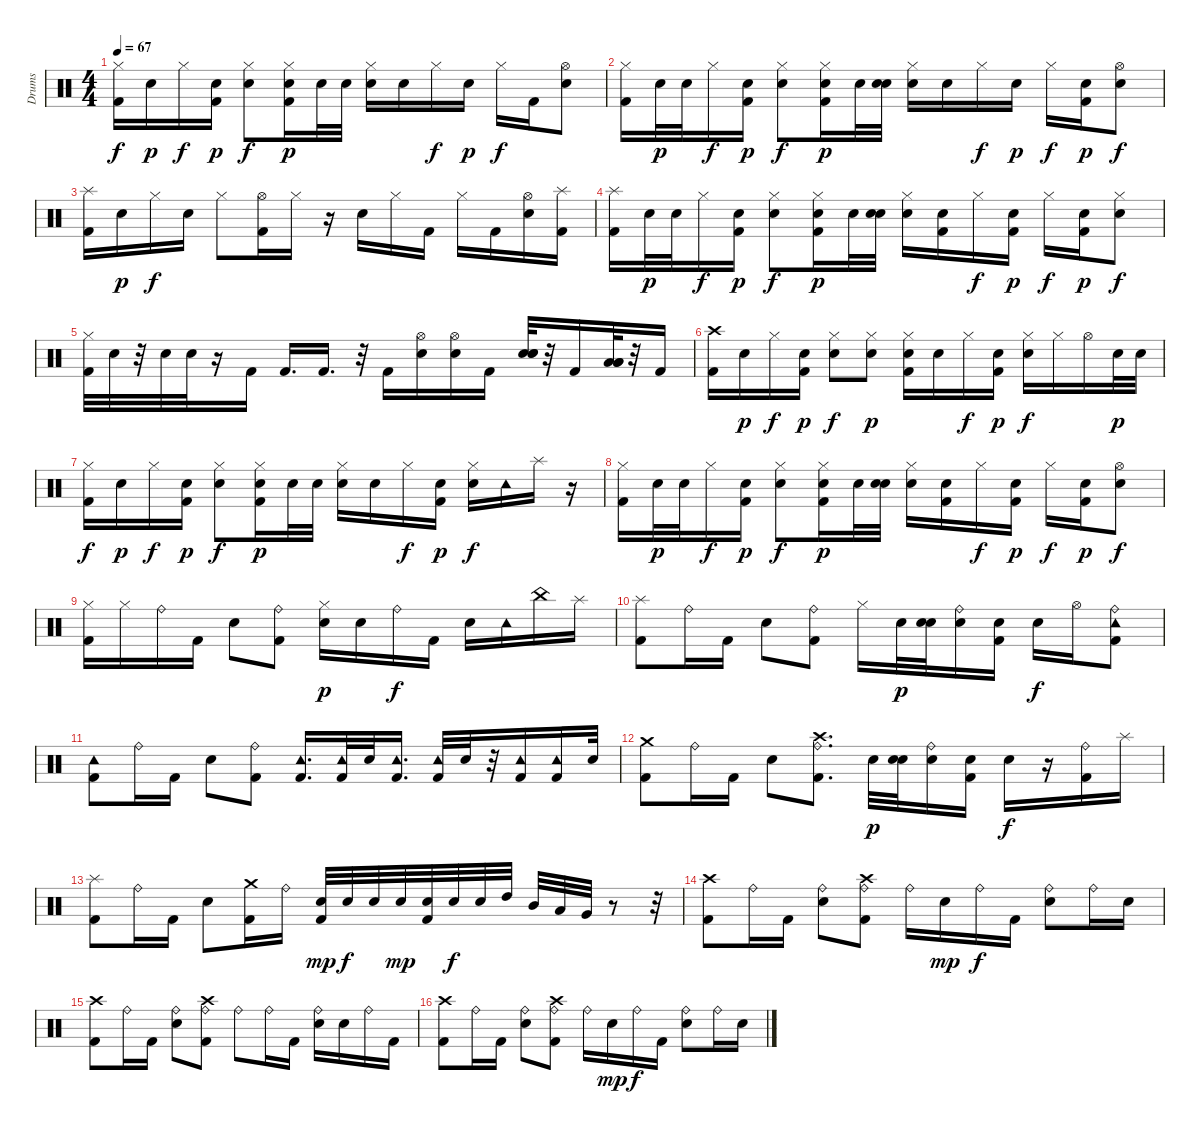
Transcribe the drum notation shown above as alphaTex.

\track ("Drums" "Drums") {instrument percussion}
\staff {score}
\articulation defaults
\ts (4 4)
\tempo 67
\clef neutral
\ks c
("Kick (hit) 2" "Hi-Hat (closed)").16{dy f} "Electric Snare (hit)".16{dy p} "Hi-Hat (closed)".16{dy f} ("Kick (hit) 2" "Electric Snare (hit)").16{dy p} ("Hi-Hat (closed)" "Electric Snare (hit)").8{dy f} ("Hi-Hat (closed)" "Kick (hit) 2" "Electric Snare (hit)").16{dy p} "Electric Snare (hit)".32 "Electric Snare (hit)".32 ("Hi-Hat (closed)" "Electric Snare (hit)").16 "Electric Snare (hit)".16 "Hi-Hat (closed)".16{dy f} "Electric Snare (hit)".16{dy p} "Hi-Hat (closed)".16{dy f} "Kick (hit) 2".16 ("Electric Snare (hit)" "Hi-Hat (open)").8 |
("Hi-Hat (closed)" "Kick (hit) 2").16 "Electric Snare (hit)".32{dy p} "Electric Snare (hit)".32 "Hi-Hat (closed)".16{dy f} ("Kick (hit) 2" "Electric Snare (hit)").16{dy p} ("Hi-Hat (closed)" "Electric Snare (hit)").8{dy f} ("Hi-Hat (closed)" "Kick (hit) 2" "Electric Snare (hit)").16{dy p} "Electric Snare (hit)".32 ("Electric Snare (hit)" "Electric Snare (hit)").32 ("Hi-Hat (closed)" "Electric Snare (hit)").16 "Electric Snare (hit)".16 "Hi-Hat (closed)".16{dy f} "Electric Snare (hit)".16{dy p} "Hi-Hat (closed)".16{dy f} ("Kick (hit) 2" "Electric Snare (hit)").16{dy p} ("Hi-Hat (open)" "Electric Snare (hit)").8{dy f} |
("Kick (hit) 2" "Splash (hit)").16 "Electric Snare (hit)".16{dy p} "Hi-Hat (closed)".16{dy f} "Electric Snare (hit)".16 "Hi-Hat (closed)".8 ("Kick (hit) 2" "Hi-Hat (open)").16 "Hi-Hat (closed)".16 r.16 "Electric Snare (hit)".16 "Hi-Hat (closed)".16 "Kick (hit) 2".16 "Hi-Hat (closed)".16 "Kick (hit) 2".16 ("Electric Snare (hit)" "Hi-Hat (open)").16 ("Kick (hit) 2" "Splash (hit)").16 |
("Kick (hit) 2" "Splash (hit)").16 "Electric Snare (hit)".32{dy p} "Electric Snare (hit)".32 "Hi-Hat (closed)".16{dy f} ("Kick (hit) 2" "Electric Snare (hit)").16{dy p} ("Hi-Hat (closed)" "Electric Snare (hit)").8{dy f} ("Hi-Hat (closed)" "Kick (hit) 2" "Electric Snare (hit)").16{dy p} "Electric Snare (hit)".32 ("Electric Snare (hit)" "Electric Snare (hit)").32 ("Hi-Hat (closed)" "Electric Snare (hit)").16 ("Kick (hit) 2" "Electric Snare (hit)").16 "Hi-Hat (closed)".16{dy f} ("Kick (hit) 2" "Electric Snare (hit)").16{dy p} "Hi-Hat (closed)".16{dy f} ("Kick (hit) 2" "Electric Snare (hit)").16{dy p} ("Electric Snare (hit)" "Hi-Hat (closed)").8{dy f} |
("Kick (hit) 2" "Hi-Hat (closed)").32 "Electric Snare (hit)".32 r.32 "Electric Snare (hit)".32 "Electric Snare (hit)".32 r.16 "Kick (hit) 2".16 "Kick (hit) 2".16{d} "Kick (hit) 2".16{d} r.32 "Kick (hit) 2".16 ("Electric Snare (hit)" "Hi-Hat (open)").16 ("Electric Snare (hit)" "Hi-Hat (open)").16 "Kick (hit) 2".16 ("Electric Snare (hit)" "Electric Snare (hit)" "Electric Snare (hit)").32 r.32 "Kick (hit) 2".16 ("Low Tom (hit)" "Low Tom (hit)" "Low Tom (hit)").32 r.32 "Kick (hit) 2".16 |
("Crash high (hit)" "Kick (hit) 2").16 "Electric Snare (hit)".16{dy p} "Hi-Hat (closed)".16{dy f} ("Kick (hit) 2" "Electric Snare (hit)").16{dy p} ("Hi-Hat (closed)" "Electric Snare (hit)").8{dy f} ("Hi-Hat (closed)" "Electric Snare (hit)").8{dy p} ("Hi-Hat (closed)" "Kick (hit) 2" "Electric Snare (hit)").16 "Electric Snare (hit)".16 "Hi-Hat (closed)".16{dy f} ("Kick (hit) 2" "Electric Snare (hit)").16{dy p} ("Electric Snare (hit)" "Hi-Hat (closed)").16{dy f} "Hi-Hat (closed)".16 "Hi-Hat (open)".16 "Electric Snare (hit)".32{dy p} "Electric Snare (hit)".32 |
("Kick (hit) 2" "Hi-Hat (closed)").16{dy f} "Electric Snare (hit)".16{dy p} "Hi-Hat (closed)".16{dy f} ("Kick (hit) 2" "Electric Snare (hit)").16{dy p} ("Hi-Hat (closed)" "Electric Snare (hit)").8{dy f} ("Hi-Hat (closed)" "Kick (hit) 2" "Electric Snare (hit)").16{dy p} "Electric Snare (hit)".32 "Electric Snare (hit)".32 ("Hi-Hat (closed)" "Electric Snare (hit)").16 "Electric Snare (hit)".16 "Hi-Hat (closed)".16{dy f} ("Kick (hit) 2" "Electric Snare (hit)").16{dy p} ("Electric Snare (hit)" "Hi-Hat (closed)").16{dy f} "Tambourine (hit)".16 "Splash (hit)".16 r.16 |
("Hi-Hat (closed)" "Kick (hit) 2").16 "Electric Snare (hit)".32{dy p} "Electric Snare (hit)".32 "Hi-Hat (closed)".16{dy f} ("Kick (hit) 2" "Electric Snare (hit)").16{dy p} ("Hi-Hat (closed)" "Electric Snare (hit)").8{dy f} ("Hi-Hat (closed)" "Kick (hit) 2" "Electric Snare (hit)").16{dy p} "Electric Snare (hit)".32 ("Electric Snare (hit)" "Electric Snare (hit)").32 ("Hi-Hat (closed)" "Electric Snare (hit)").16 ("Kick (hit) 2" "Electric Snare (hit)").16 "Hi-Hat (closed)".16{dy f} ("Kick (hit) 2" "Electric Snare (hit)").16{dy p} "Hi-Hat (closed)".16{dy f} ("Kick (hit) 2" "Electric Snare (hit)").16{dy p} ("Hi-Hat (open)" "Electric Snare (hit)").8{dy f} |
("Hi-Hat (closed)" "Kick (hit) 2").16 "Hi-Hat (closed)".16 "Ride (bell)".16 "Kick (hit) 2".16 "Electric Snare (hit)".8 ("Kick (hit) 2" "Ride (bell)").8 ("Hi-Hat (closed)" "Electric Snare (hit)").16{dy p} "Electric Snare (hit)".16 "Ride (bell)".16{dy f} "Kick (hit) 2".16 "Electric Snare (hit)".16 "Tambourine (hit)".16 "China (hit)".16 "Splash (hit)".16 |
("Splash (hit)" "Kick (hit) 2").8 "Ride (bell)".16 "Kick (hit) 2".16 "Electric Snare (hit)".8 ("Kick (hit) 2" "Ride (bell)").8 "Hi-Hat (closed)".16 "Electric Snare (hit)".32{dy p} ("Electric Snare (hit)" "Electric Snare (hit)").32 ("Ride (bell)" "Electric Snare (hit)").16 ("Kick (hit) 2" "Electric Snare (hit)").16 "Electric Snare (hit)".16{dy f} "Hi-Hat (open)".16 ("Ride (bell)" "Tambourine (hit)" "Kick (hit) 2").8 |
("Kick (hit) 2" "Tambourine (hit)").8 "Ride (bell)".16 "Kick (hit) 2".16 "Electric Snare (hit)".8 ("Ride (bell)" "Kick (hit) 2").8 ("Kick (hit) 2" "Tambourine (hit)").16{d} ("Kick (hit) 2" "Tambourine (hit)").32 "Electric Snare (hit)".32 ("Kick (hit) 2" "Tambourine (hit)").16{d} ("Kick (hit) 2" "Tambourine (hit)").32 "Electric Snare (hit)".32 r.32 ("Kick (hit) 2" "Tambourine (hit)").16 ("Kick (hit) 2" "Tambourine (hit)").16 "Electric Snare (hit)".32 |
("Kick (hit) 2" "Crash medium (hit)").8 "Ride (bell)".16 "Kick (hit) 2".16 "Electric Snare (hit)".8 ("Ride (bell)" "Kick (hit) 2" "Crash high (hit)").8{d} "Electric Snare (hit)".32{dy p} ("Electric Snare (hit)" "Electric Snare (hit)").32 ("Ride (bell)" "Electric Snare (hit)").16 ("Kick (hit) 2" "Electric Snare (hit)").16 "Electric Snare (hit)".16{dy f} r.16 ("Ride (bell)" "Kick (hit) 2").16 "Splash (hit)".16 |
("Kick (hit) 2" "Splash (hit)").8 "Ride (bell)".16 "Kick (hit) 2".16 "Electric Snare (hit)".8 ("Kick (hit) 2" "Crash medium (hit)").16 "Ride (bell)".16 ("Kick (hit) 2" "Electric Snare (hit)").32{dy mp} "Electric Snare (hit)".32{dy f} "Electric Snare (hit)".32 "Electric Snare (hit)".32{dy mp} ("Kick (hit) 2" "Electric Snare (hit)").32 "Electric Snare (hit)".32{dy f} "Electric Snare (hit)".32 "High Tom (hit)".32 "Mid Tom (hit)".32 "Low Tom (hit)".32 "Very Low Tom (hit)".32 r.8 r.32 |
("Kick (hit) 2" "Crash high (hit)").8 "Ride (bell)".16 "Kick (hit) 2".16 ("Electric Snare (hit)" "Ride (bell)").8 ("Kick (hit) 2" "Ride (bell)" "Crash high (hit)").8 "Ride (bell)".16 "Electric Snare (hit)".16{dy mp} "Ride (bell)".16{dy f} "Kick (hit) 2".16 ("Electric Snare (hit)" "Ride (bell)").8 "Ride (bell)".16 "Electric Snare (hit)".16 |
("Crash high (hit)" "Kick (hit) 2").8 "Ride (bell)".16 "Kick (hit) 2".16 ("Electric Snare (hit)" "Ride (bell)").8 ("Kick (hit) 2" "Ride (bell)" "Crash high (hit)").8 "Ride (bell)".8 "Ride (bell)".16 "Kick (hit) 2".16 ("Electric Snare (hit)" "Ride (bell)").16 "Electric Snare (hit)".16 "Ride (bell)".16 "Kick (hit) 2".16 |
("Crash high (hit)" "Kick (hit) 2").8 "Ride (bell)".16 "Kick (hit) 2".16 ("Electric Snare (hit)" "Ride (bell)").8 ("Kick (hit) 2" "Ride (bell)" "Crash high (hit)").8 "Ride (bell)".16 "Electric Snare (hit)".16{dy mp} "Ride (bell)".16{dy f} "Kick (hit) 2".16 ("Electric Snare (hit)" "Ride (bell)").8 "Ride (bell)".16 "Electric Snare (hit)".16
